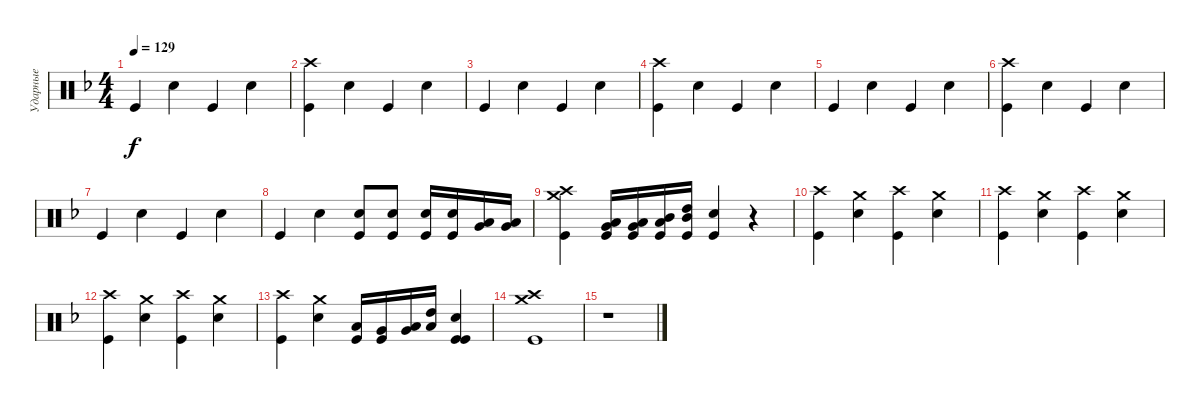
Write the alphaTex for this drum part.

\track ("Ударные" "Ударные") {instrument percussion}
\staff {score}
\articulation defaults
\ts (4 4)
\tempo 129
\clef neutral
\ks dminor "Kick (hit)".4{dy f} "Snare (hit) 2".4 "Kick (hit)".4 "Snare (hit) 2".4
|
("Crash high (hit)" "Kick (hit)").4 "Snare (hit) 2".4 "Kick (hit)".4 "Snare (hit) 2".4 |
"Kick (hit)".4 "Snare (hit) 2".4 "Kick (hit)".4 "Snare (hit) 2".4 |
("Crash high (hit)" "Kick (hit)").4 "Snare (hit) 2".4 "Kick (hit)".4 "Snare (hit) 2".4 |
"Kick (hit)".4 "Snare (hit) 2".4 "Kick (hit)".4 "Snare (hit) 2".4 |
("Crash high (hit)" "Kick (hit)").4 "Snare (hit) 2".4 "Kick (hit)".4 "Snare (hit) 2".4 |
"Kick (hit)".4 "Snare (hit) 2".4 "Kick (hit)".4 "Snare (hit) 2".4 |
"Kick (hit)".4 "Snare (hit) 2".4 ("Snare (hit) 2" "Kick (hit)").8 ("Snare (hit) 2" "Kick (hit)").8 ("Snare (hit) 2" "Kick (hit)").16 ("Snare (hit) 2" "Kick (hit)").16 ("Low Floor Tom (hit)" "Very Low Tom (hit)").16 ("Very Low Tom (hit)" "Low Tom (hit)").16 |
("Crash high (hit)" "Kick (hit)" "Crash medium (hit)").4 ("Kick (hit)" "Very Low Tom (hit)" "Low Floor Tom (hit)").16 ("Kick (hit)" "Low Tom (hit)" "Very Low Tom (hit)").16 ("Kick (hit)" "Mid Tom (hit)" "Low Tom (hit)").16 ("Kick (hit)" "High Tom (hit)" "Mid Tom (hit)").16 ("Snare (hit) 2" "Kick (hit)").4 r.4 |
("Kick (hit)" "Crash high (hit)").4 ("Snare (hit) 2" "Crash medium (hit)").4 ("Kick (hit)" "Crash high (hit)").4 ("Snare (hit) 2" "Crash medium (hit)").4 |
("Kick (hit)" "Crash high (hit)").4 ("Snare (hit) 2" "Crash medium (hit)").4 ("Kick (hit)" "Crash high (hit)").4 ("Snare (hit) 2" "Crash medium (hit)").4 |
("Kick (hit)" "Crash high (hit)").4 ("Snare (hit) 2" "Crash medium (hit)").4 ("Kick (hit)" "Crash high (hit)").4 ("Snare (hit) 2" "Crash medium (hit)").4 |
("Kick (hit)" "Crash high (hit)").4 ("Crash medium (hit)" "Snare (hit) 2").4 ("Low Floor Tom (hit)" "Kick (hit)").16 ("Very Low Tom (hit)" "Kick (hit)").16 ("Low Tom (hit)" "Very Low Tom (hit)").16 ("High Tom (hit)" "Low Tom (hit)").16 ("Snare (hit) 2" "Kick (hit)" "Kick (hit)").4 |
("Crash medium (hit)" "Kick (hit)" "Crash high (hit)").1 |
r.1
